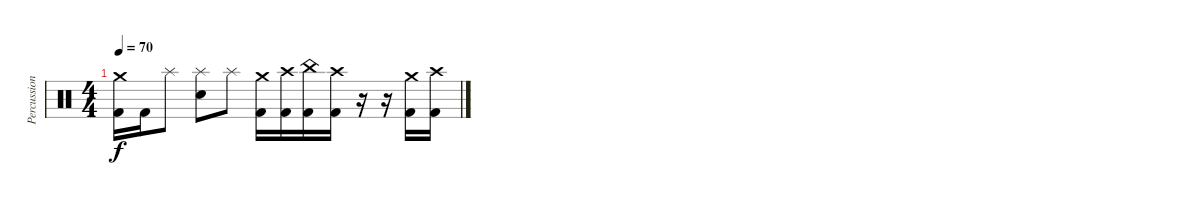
\track ("Percussions" "Percussion") {instrument percussion}
\staff {score}
\articulation defaults
\ts (4 4)
\tempo 70
\clef neutral
\ks c
("Crash medium (hit)" "Kick (hit) 2").16{dy f} "Kick (hit) 2".16 "Splash (hit)".8 ("Splash (hit)" "Electric Snare (hit)").8 "Splash (hit)".8 ("Crash medium (hit)" "Kick (hit) 2").16 ("Crash high (hit)" "Kick (hit) 2").16 ("China (hit)" "Kick (hit) 2").16 ("Crash high (hit)" "Kick (hit) 2").16 r.16 r.16 ("Crash medium (hit)" "Kick (hit) 2").16 ("Crash high (hit)" "Kick (hit) 2").16
